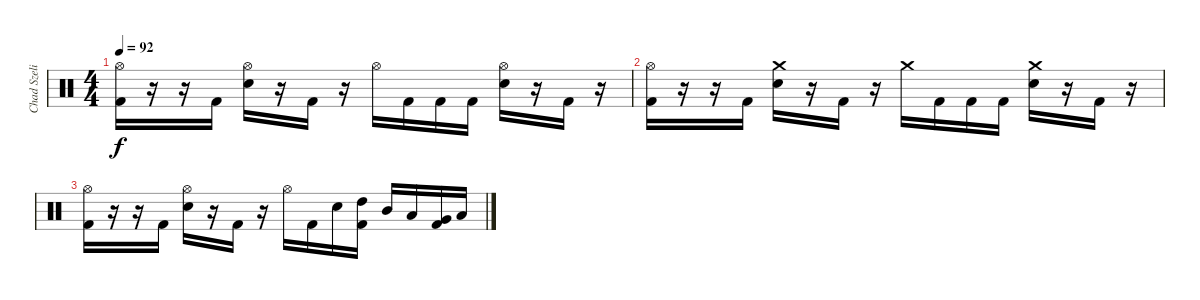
\track ("Chad Szeliga" "Chad Szeli") {instrument percussion}
\staff {score}
\articulation defaults
\ts (4 4)
\tempo 92
\clef neutral
\ks c
("Hi-Hat (open)" "Kick (hit) 2").16{dy f} r.16 r.16 "Kick (hit) 2".16 ("Hi-Hat (open)" "Electric Snare (hit)").16 r.16 "Kick (hit) 2".16 r.16 "Hi-Hat (open)".16 "Kick (hit) 2".16 "Kick (hit) 2".16 "Kick (hit) 2".16 ("Hi-Hat (open)" "Electric Snare (hit)").16 r.16 "Kick (hit) 2".16 r.16 |
("Hi-Hat (open)" "Kick (hit) 2").16 r.16 r.16 "Kick (hit) 2".16 ("Crash medium (hit)" "Electric Snare (hit)").16 r.16 "Kick (hit) 2".16 r.16 "Crash medium (hit)".16 "Kick (hit) 2".16 "Kick (hit) 2".16 "Kick (hit) 2".16 ("Crash medium (hit)" "Electric Snare (hit)").16 r.16 "Kick (hit) 2".16 r.16 |
("Hi-Hat (open)" "Kick (hit) 2").16 r.16 r.16 "Kick (hit) 2".16 ("Hi-Hat (open)" "Electric Snare (hit)").16 r.16 "Kick (hit) 2".16 r.16 "Hi-Hat (open)".16 "Kick (hit) 2".16 "Electric Snare (hit)".16 ("High Tom (hit)" "Kick (hit) 2").16 "Mid Tom (hit)".16 "Low Tom (hit)".16 ("Very Low Tom (hit)" "Kick (hit) 2").16 "Low Floor Tom (hit)".16
